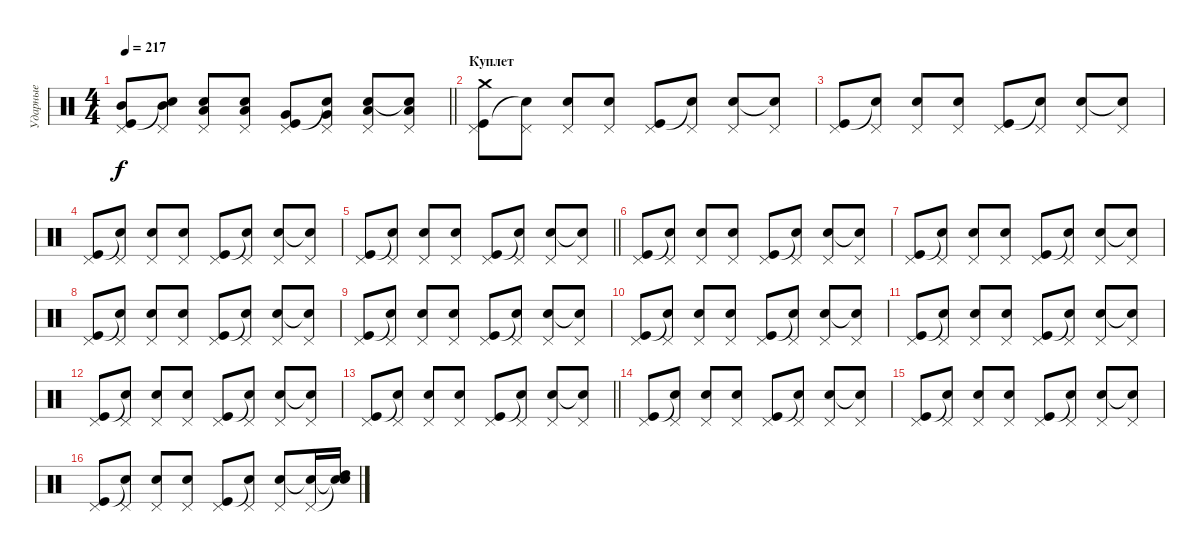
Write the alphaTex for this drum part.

\track ("Ударные" "Ударные") {instrument percussion}
\staff {score}
\articulation defaults
\ts (4 4)
\tempo 217
\clef neutral
\barLineRight lightlight
\ks c
("Pedal Hi-Hat (hit)" "Kick (hit)" "Mid Tom (hit)").8{dy f} ("Pedal Hi-Hat (hit)" "Snare (hit)"{t} "Mid Tom (hit)").8 ("Pedal Hi-Hat (hit)" "Snare (hit) 2" "Low Tom (hit)").8 ("Pedal Hi-Hat (hit)" "Snare (hit) 2" "Low Tom (hit)").8 ("Pedal Hi-Hat (hit)" "Kick (hit)" "Very Low Tom (hit)").8 ("Pedal Hi-Hat (hit)" "Snare (hit)"{t} "Very Low Tom (hit)").8 ("Pedal Hi-Hat (hit)" "Snare (hit) 2" "Low Floor Tom (hit)").8 ("Pedal Hi-Hat (hit)" "Snare (hit)"{t} "Low Floor Tom (hit)").8 |
\section ("" "Куплет")
("Pedal Hi-Hat (hit)" "Kick (hit)" "Crash medium (hit)").8 ("Pedal Hi-Hat (hit)" "Snare (hit)"{t}).8 ("Pedal Hi-Hat (hit)" "Snare (hit) 2").8 ("Pedal Hi-Hat (hit)" "Snare (hit) 2").8 ("Pedal Hi-Hat (hit)" "Kick (hit)").8 ("Pedal Hi-Hat (hit)" "Snare (hit)"{t}).8 ("Pedal Hi-Hat (hit)" "Snare (hit) 2").8 ("Pedal Hi-Hat (hit)" "Snare (hit)"{t}).8 |
("Pedal Hi-Hat (hit)" "Kick (hit)").8 ("Pedal Hi-Hat (hit)" "Snare (hit)"{t}).8 ("Pedal Hi-Hat (hit)" "Snare (hit) 2").8 ("Pedal Hi-Hat (hit)" "Snare (hit) 2").8 ("Pedal Hi-Hat (hit)" "Kick (hit)").8 ("Pedal Hi-Hat (hit)" "Snare (hit)"{t}).8 ("Pedal Hi-Hat (hit)" "Snare (hit) 2").8 ("Pedal Hi-Hat (hit)" "Snare (hit)"{t}).8 |
("Pedal Hi-Hat (hit)" "Kick (hit)").8 ("Pedal Hi-Hat (hit)" "Snare (hit)"{t}).8 ("Pedal Hi-Hat (hit)" "Snare (hit) 2").8 ("Pedal Hi-Hat (hit)" "Snare (hit) 2").8 ("Pedal Hi-Hat (hit)" "Kick (hit)").8 ("Pedal Hi-Hat (hit)" "Snare (hit)"{t}).8 ("Pedal Hi-Hat (hit)" "Snare (hit) 2").8 ("Pedal Hi-Hat (hit)" "Snare (hit)"{t}).8 |
\barLineRight lightlight
("Pedal Hi-Hat (hit)" "Kick (hit)").8 ("Pedal Hi-Hat (hit)" "Snare (hit)"{t}).8 ("Pedal Hi-Hat (hit)" "Snare (hit) 2").8 ("Pedal Hi-Hat (hit)" "Snare (hit) 2").8 ("Pedal Hi-Hat (hit)" "Kick (hit)").8 ("Pedal Hi-Hat (hit)" "Snare (hit)"{t}).8 ("Pedal Hi-Hat (hit)" "Snare (hit) 2").8 ("Pedal Hi-Hat (hit)" "Snare (hit)"{t}).8 |
("Pedal Hi-Hat (hit)" "Kick (hit)").8 ("Pedal Hi-Hat (hit)" "Snare (hit)"{t}).8 ("Pedal Hi-Hat (hit)" "Snare (hit) 2").8 ("Pedal Hi-Hat (hit)" "Snare (hit) 2").8 ("Pedal Hi-Hat (hit)" "Kick (hit)").8 ("Pedal Hi-Hat (hit)" "Snare (hit)"{t}).8 ("Pedal Hi-Hat (hit)" "Snare (hit) 2").8 ("Pedal Hi-Hat (hit)" "Snare (hit)"{t}).8 |
("Pedal Hi-Hat (hit)" "Kick (hit)").8 ("Pedal Hi-Hat (hit)" "Snare (hit)"{t}).8 ("Pedal Hi-Hat (hit)" "Snare (hit) 2").8 ("Pedal Hi-Hat (hit)" "Snare (hit) 2").8 ("Pedal Hi-Hat (hit)" "Kick (hit)").8 ("Pedal Hi-Hat (hit)" "Snare (hit)"{t}).8 ("Pedal Hi-Hat (hit)" "Snare (hit) 2").8 ("Pedal Hi-Hat (hit)" "Snare (hit)"{t}).8 |
("Pedal Hi-Hat (hit)" "Kick (hit)").8 ("Pedal Hi-Hat (hit)" "Snare (hit)"{t}).8 ("Pedal Hi-Hat (hit)" "Snare (hit) 2").8 ("Pedal Hi-Hat (hit)" "Snare (hit) 2").8 ("Pedal Hi-Hat (hit)" "Kick (hit)").8 ("Pedal Hi-Hat (hit)" "Snare (hit)"{t}).8 ("Pedal Hi-Hat (hit)" "Snare (hit) 2").8 ("Pedal Hi-Hat (hit)" "Snare (hit)"{t}).8 |
("Pedal Hi-Hat (hit)" "Kick (hit)").8 ("Pedal Hi-Hat (hit)" "Snare (hit)"{t}).8 ("Pedal Hi-Hat (hit)" "Snare (hit) 2").8 ("Pedal Hi-Hat (hit)" "Snare (hit) 2").8 ("Pedal Hi-Hat (hit)" "Kick (hit)").8 ("Pedal Hi-Hat (hit)" "Snare (hit)"{t}).8 ("Pedal Hi-Hat (hit)" "Snare (hit) 2").8 ("Pedal Hi-Hat (hit)" "Snare (hit)"{t}).8 |
("Pedal Hi-Hat (hit)" "Kick (hit)").8 ("Pedal Hi-Hat (hit)" "Snare (hit)"{t}).8 ("Pedal Hi-Hat (hit)" "Snare (hit) 2").8 ("Pedal Hi-Hat (hit)" "Snare (hit) 2").8 ("Pedal Hi-Hat (hit)" "Kick (hit)").8 ("Pedal Hi-Hat (hit)" "Snare (hit)"{t}).8 ("Pedal Hi-Hat (hit)" "Snare (hit) 2").8 ("Pedal Hi-Hat (hit)" "Snare (hit)"{t}).8 |
("Pedal Hi-Hat (hit)" "Kick (hit)").8 ("Pedal Hi-Hat (hit)" "Snare (hit)"{t}).8 ("Pedal Hi-Hat (hit)" "Snare (hit) 2").8 ("Pedal Hi-Hat (hit)" "Snare (hit) 2").8 ("Pedal Hi-Hat (hit)" "Kick (hit)").8 ("Pedal Hi-Hat (hit)" "Snare (hit)"{t}).8 ("Pedal Hi-Hat (hit)" "Snare (hit) 2").8 ("Pedal Hi-Hat (hit)" "Snare (hit)"{t}).8 |
("Pedal Hi-Hat (hit)" "Kick (hit)").8 ("Pedal Hi-Hat (hit)" "Snare (hit)"{t}).8 ("Pedal Hi-Hat (hit)" "Snare (hit) 2").8 ("Pedal Hi-Hat (hit)" "Snare (hit) 2").8 ("Pedal Hi-Hat (hit)" "Kick (hit)").8 ("Pedal Hi-Hat (hit)" "Snare (hit)"{t}).8 ("Pedal Hi-Hat (hit)" "Snare (hit) 2").8 ("Pedal Hi-Hat (hit)" "Snare (hit)"{t}).8 |
\barLineRight lightlight
("Pedal Hi-Hat (hit)" "Kick (hit)").8 ("Pedal Hi-Hat (hit)" "Snare (hit)"{t}).8 ("Pedal Hi-Hat (hit)" "Snare (hit) 2").8 ("Pedal Hi-Hat (hit)" "Snare (hit) 2").8 ("Pedal Hi-Hat (hit)" "Kick (hit)").8 ("Pedal Hi-Hat (hit)" "Snare (hit)"{t}).8 ("Pedal Hi-Hat (hit)" "Snare (hit) 2").8 ("Pedal Hi-Hat (hit)" "Snare (hit)"{t}).8 |
("Pedal Hi-Hat (hit)" "Kick (hit)").8 ("Pedal Hi-Hat (hit)" "Snare (hit)"{t}).8 ("Pedal Hi-Hat (hit)" "Snare (hit) 2").8 ("Pedal Hi-Hat (hit)" "Snare (hit) 2").8 ("Pedal Hi-Hat (hit)" "Kick (hit)").8 ("Pedal Hi-Hat (hit)" "Snare (hit)"{t}).8 ("Pedal Hi-Hat (hit)" "Snare (hit) 2").8 ("Pedal Hi-Hat (hit)" "Snare (hit)"{t}).8 |
("Pedal Hi-Hat (hit)" "Kick (hit)").8 ("Pedal Hi-Hat (hit)" "Snare (hit)"{t}).8 ("Pedal Hi-Hat (hit)" "Snare (hit) 2").8 ("Pedal Hi-Hat (hit)" "Snare (hit) 2").8 ("Pedal Hi-Hat (hit)" "Kick (hit)").8 ("Pedal Hi-Hat (hit)" "Snare (hit)"{t}).8 ("Pedal Hi-Hat (hit)" "Snare (hit) 2").8 ("Pedal Hi-Hat (hit)" "Snare (hit)"{t}).8 |
("Pedal Hi-Hat (hit)" "Kick (hit)").8 ("Pedal Hi-Hat (hit)" "Snare (hit)"{t}).8 ("Pedal Hi-Hat (hit)" "Snare (hit) 2").8 ("Pedal Hi-Hat (hit)" "Snare (hit) 2").8 ("Pedal Hi-Hat (hit)" "Kick (hit)").8 ("Pedal Hi-Hat (hit)" "Snare (hit)"{t}).8 ("Pedal Hi-Hat (hit)" "Snare (hit) 2").8 ("Pedal Hi-Hat (hit)" "Snare (hit)"{t}).16 ("Snare (hit)"{t} "Snare (hit)"{t} "High Tom (hit)").16
